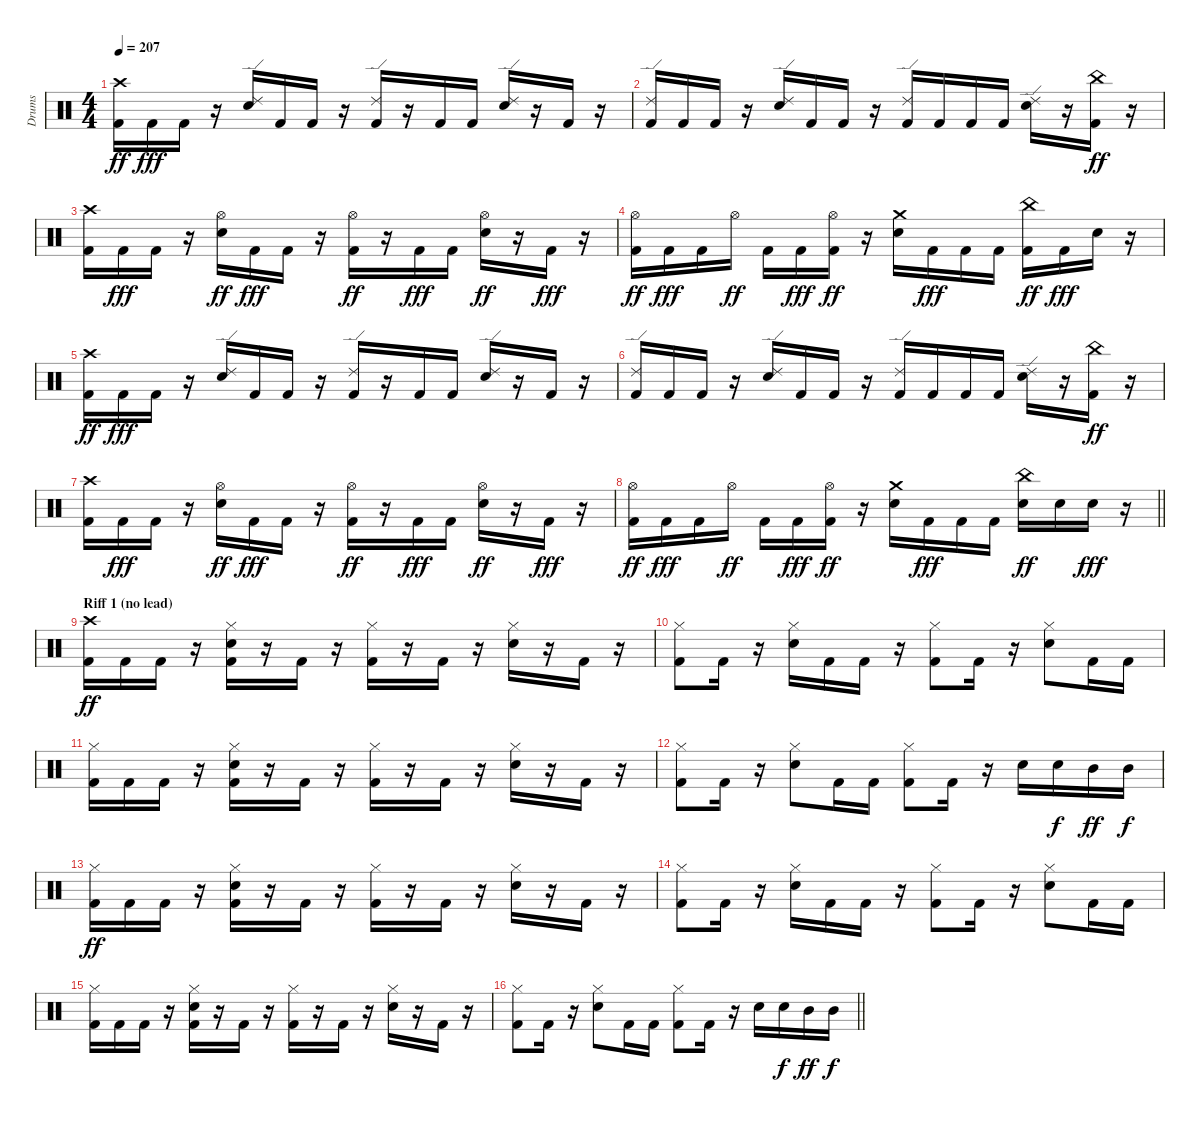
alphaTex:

\track ("Drums" "Drums") {instrument percussion}
\staff {score}
\articulation defaults
\ts (4 4)
\tempo 207
\clef neutral
\ks c
("Kick (hit) 2" "Crash high (hit)").16{dy ff} "Kick (hit) 2".16{dy fff} "Kick (hit) 2".16 r.16 ("Snare (hit) 2" "Ride (edge) 2").16 "Kick (hit) 2".16 "Kick (hit) 2".16 r.16 ("Kick (hit) 2" "Ride (edge) 2").16 r.16 "Kick (hit) 2".16 "Kick (hit) 2".16 ("Snare (hit) 2" "Ride (edge) 2").16 r.16 "Kick (hit) 2".16 r.16 |
("Kick (hit) 2" "Ride (edge) 2").16 "Kick (hit) 2".16 "Kick (hit) 2".16 r.16 ("Snare (hit) 2" "Ride (edge) 2").16 "Kick (hit) 2".16 "Kick (hit) 2".16 r.16 ("Kick (hit) 2" "Ride (edge) 2").16 "Kick (hit) 2".16 "Kick (hit) 2".16 "Kick (hit) 2".16 ("Snare (hit) 2" "Ride (edge) 2").16 r.16 ("Kick (hit) 2" "China (hit)").16{dy ff} r.16 |
("Kick (hit) 2" "Crash high (hit)").16 "Kick (hit) 2".16{dy fff} "Kick (hit) 2".16 r.16 ("Snare (hit) 2" "Hi-Hat (open)").16{dy ff} "Kick (hit) 2".16{dy fff} "Kick (hit) 2".16 r.16 ("Kick (hit) 2" "Hi-Hat (open)").16{dy ff} r.16 "Kick (hit) 2".16{dy fff} "Kick (hit) 2".16 ("Snare (hit) 2" "Hi-Hat (open)").16{dy ff} r.16 "Kick (hit) 2".16{dy fff} r.16 |
("Kick (hit) 2" "Hi-Hat (open)").16{dy ff} "Kick (hit) 2".16{dy fff} "Kick (hit) 2".16 "Hi-Hat (open)".16{dy ff} "Kick (hit) 2".16 "Kick (hit) 2".16{dy fff} ("Kick (hit) 2" "Hi-Hat (open)").16{dy ff} r.16 ("Snare (hit) 2" "Crash medium (hit)").16 "Kick (hit) 2".16{dy fff} "Kick (hit) 2".16 "Kick (hit) 2".16 ("Kick (hit) 2" "China (hit)").16{dy ff} "Kick (hit) 2".16{dy fff} "Snare (hit) 2".16 r.16 |
("Kick (hit) 2" "Crash high (hit)").16{dy ff} "Kick (hit) 2".16{dy fff} "Kick (hit) 2".16 r.16 ("Snare (hit) 2" "Ride (edge) 2").16 "Kick (hit) 2".16 "Kick (hit) 2".16 r.16 ("Kick (hit) 2" "Ride (edge) 2").16 r.16 "Kick (hit) 2".16 "Kick (hit) 2".16 ("Snare (hit) 2" "Ride (edge) 2").16 r.16 "Kick (hit) 2".16 r.16 |
("Kick (hit) 2" "Ride (edge) 2").16 "Kick (hit) 2".16 "Kick (hit) 2".16 r.16 ("Snare (hit) 2" "Ride (edge) 2").16 "Kick (hit) 2".16 "Kick (hit) 2".16 r.16 ("Kick (hit) 2" "Ride (edge) 2").16 "Kick (hit) 2".16 "Kick (hit) 2".16 "Kick (hit) 2".16 ("Snare (hit) 2" "Ride (edge) 2").16 r.16 ("Kick (hit) 2" "China (hit)").16{dy ff} r.16 |
("Kick (hit) 2" "Crash high (hit)").16 "Kick (hit) 2".16{dy fff} "Kick (hit) 2".16 r.16 ("Snare (hit) 2" "Hi-Hat (open)").16{dy ff} "Kick (hit) 2".16{dy fff} "Kick (hit) 2".16 r.16 ("Kick (hit) 2" "Hi-Hat (open)").16{dy ff} r.16 "Kick (hit) 2".16{dy fff} "Kick (hit) 2".16 ("Snare (hit) 2" "Hi-Hat (open)").16{dy ff} r.16 "Kick (hit) 2".16{dy fff} r.16 |
\barLineRight lightlight
("Kick (hit) 2" "Hi-Hat (open)").16{dy ff} "Kick (hit) 2".16{dy fff} "Kick (hit) 2".16 "Hi-Hat (open)".16{dy ff} "Kick (hit) 2".16 "Kick (hit) 2".16{dy fff} ("Kick (hit) 2" "Hi-Hat (open)").16{dy ff} r.16 ("Snare (hit) 2" "Crash medium (hit)").16 "Kick (hit) 2".16{dy fff} "Kick (hit) 2".16 "Kick (hit) 2".16 ("Snare (hit) 2" "China (hit)").16{dy ff} "Snare (hit) 2".16 "Snare (hit) 2".16{dy fff} r.16 |
\section ("" "Riff 1 (no lead)")
("Kick (hit) 2" "Crash high (hit)").16{dy ff} "Kick (hit) 2".16 "Kick (hit) 2".16 r.16 ("Kick (hit) 2" "Snare (hit) 2" "Hi-Hat (closed)").16 r.16 "Kick (hit) 2".16 r.16 ("Kick (hit) 2" "Hi-Hat (closed)").16 r.16 "Kick (hit) 2".16 r.16 ("Snare (hit) 2" "Hi-Hat (closed)").16 r.16 "Kick (hit) 2".16 r.16 |
("Kick (hit) 2" "Hi-Hat (closed)").8 "Kick (hit) 2".16 r.16 ("Snare (hit) 2" "Hi-Hat (closed)").16 "Kick (hit) 2".16 "Kick (hit) 2".16 r.16 ("Kick (hit) 2" "Hi-Hat (closed)").8 "Kick (hit) 2".16 r.16 ("Snare (hit) 2" "Hi-Hat (closed)").8 "Kick (hit) 2".16 "Kick (hit) 2".16 |
("Kick (hit) 2" "Hi-Hat (closed)").16 "Kick (hit) 2".16 "Kick (hit) 2".16 r.16 ("Kick (hit) 2" "Snare (hit) 2" "Hi-Hat (closed)").16 r.16 "Kick (hit) 2".16 r.16 ("Kick (hit) 2" "Hi-Hat (closed)").16 r.16 "Kick (hit) 2".16 r.16 ("Snare (hit) 2" "Hi-Hat (closed)").16 r.16 "Kick (hit) 2".16 r.16 |
("Kick (hit) 2" "Hi-Hat (closed)").8 "Kick (hit) 2".16 r.16 ("Snare (hit) 2" "Hi-Hat (closed)").8 "Kick (hit) 2".16 "Kick (hit) 2".16 ("Kick (hit) 2" "Hi-Hat (closed)").8 "Kick (hit) 2".16 r.16 "Snare (hit) 2".16 "Snare (hit) 2".16{dy f} "Mid Tom (hit)".16{dy ff} "Mid Tom (hit)".16{dy f} |
("Kick (hit) 2" "Hi-Hat (closed)").16{dy ff} "Kick (hit) 2".16 "Kick (hit) 2".16 r.16 ("Kick (hit) 2" "Snare (hit) 2" "Hi-Hat (closed)").16 r.16 "Kick (hit) 2".16 r.16 ("Kick (hit) 2" "Hi-Hat (closed)").16 r.16 "Kick (hit) 2".16 r.16 ("Snare (hit) 2" "Hi-Hat (closed)").16 r.16 "Kick (hit) 2".16 r.16 |
("Kick (hit) 2" "Hi-Hat (closed)").8 "Kick (hit) 2".16 r.16 ("Snare (hit) 2" "Hi-Hat (closed)").16 "Kick (hit) 2".16 "Kick (hit) 2".16 r.16 ("Kick (hit) 2" "Hi-Hat (closed)").8 "Kick (hit) 2".16 r.16 ("Snare (hit) 2" "Hi-Hat (closed)").8 "Kick (hit) 2".16 "Kick (hit) 2".16 |
("Kick (hit) 2" "Hi-Hat (closed)").16 "Kick (hit) 2".16 "Kick (hit) 2".16 r.16 ("Kick (hit) 2" "Snare (hit) 2" "Hi-Hat (closed)").16 r.16 "Kick (hit) 2".16 r.16 ("Kick (hit) 2" "Hi-Hat (closed)").16 r.16 "Kick (hit) 2".16 r.16 ("Snare (hit) 2" "Hi-Hat (closed)").16 r.16 "Kick (hit) 2".16 r.16 |
\barLineRight lightlight
("Kick (hit) 2" "Hi-Hat (closed)").8 "Kick (hit) 2".16 r.16 ("Snare (hit) 2" "Hi-Hat (closed)").8 "Kick (hit) 2".16 "Kick (hit) 2".16 ("Kick (hit) 2" "Hi-Hat (closed)").8 "Kick (hit) 2".16 r.16 "Snare (hit) 2".16 "Snare (hit) 2".16{dy f} "Mid Tom (hit)".16{dy ff} "Mid Tom (hit)".16{dy f}
